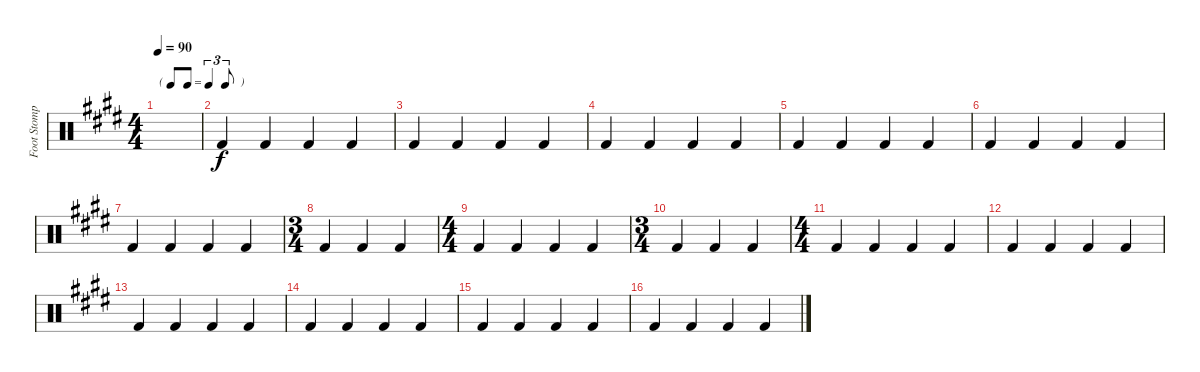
\track ("Foot Stomp" "Foot Stomp") {instrument percussion}
\staff {score}
\articulation defaults
\ts (4 4)
\tf triplet8th
\tempo 90
\clef neutral
\ks e
|
"Kick (hit) 2".4 "Kick (hit) 2".4 "Kick (hit) 2".4 "Kick (hit) 2".4 |
"Kick (hit) 2".4 "Kick (hit) 2".4 "Kick (hit) 2".4 "Kick (hit) 2".4 |
"Kick (hit) 2".4 "Kick (hit) 2".4 "Kick (hit) 2".4 "Kick (hit) 2".4 |
"Kick (hit) 2".4 "Kick (hit) 2".4 "Kick (hit) 2".4 "Kick (hit) 2".4 |
"Kick (hit) 2".4 "Kick (hit) 2".4 "Kick (hit) 2".4 "Kick (hit) 2".4 |
"Kick (hit) 2".4 "Kick (hit) 2".4 "Kick (hit) 2".4 "Kick (hit) 2".4 |
\ts (3 4)
"Kick (hit) 2".4 "Kick (hit) 2".4 "Kick (hit) 2".4 |
\ts (4 4)
"Kick (hit) 2".4 "Kick (hit) 2".4 "Kick (hit) 2".4 "Kick (hit) 2".4 |
\ts (3 4)
"Kick (hit) 2".4 "Kick (hit) 2".4 "Kick (hit) 2".4 |
\ts (4 4)
"Kick (hit) 2".4 "Kick (hit) 2".4 "Kick (hit) 2".4 "Kick (hit) 2".4 |
"Kick (hit) 2".4 "Kick (hit) 2".4 "Kick (hit) 2".4 "Kick (hit) 2".4 |
"Kick (hit) 2".4 "Kick (hit) 2".4 "Kick (hit) 2".4 "Kick (hit) 2".4 |
"Kick (hit) 2".4 "Kick (hit) 2".4 "Kick (hit) 2".4 "Kick (hit) 2".4 |
"Kick (hit) 2".4 "Kick (hit) 2".4 "Kick (hit) 2".4 "Kick (hit) 2".4 |
"Kick (hit) 2".4 "Kick (hit) 2".4 "Kick (hit) 2".4 "Kick (hit) 2".4
